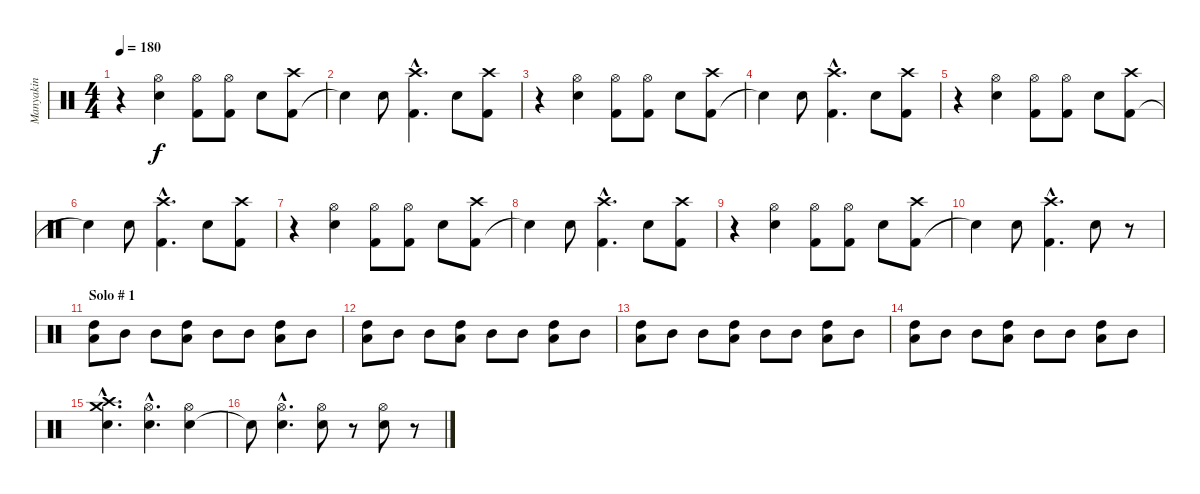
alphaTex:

\track ("Manyakin" "Manyakin") {instrument percussion}
\staff {score}
\articulation defaults
\ts (4 4)
\tempo 180
\clef neutral
\ks c
r.4{dy f} ("Snare (hit) 2" "Hi-Hat (open)").4 ("Kick (hit) 2" "Hi-Hat (open)").8 ("Kick (hit) 2" "Hi-Hat (open)").8 "Snare (hit) 2".8 ("Kick (hit) 2" "Crash high (hit)").8 |
"Snare (hit)"{t}.4 "Snare (hit) 2".8 ("Kick (hit) 2"{hac} "Crash high (hit)"{hac}).4{d} "Snare (hit) 2".8 ("Kick (hit) 2" "Crash high (hit)").8 |
r.4 ("Snare (hit) 2" "Hi-Hat (open)").4 ("Kick (hit) 2" "Hi-Hat (open)").8 ("Kick (hit) 2" "Hi-Hat (open)").8 "Snare (hit) 2".8 ("Kick (hit) 2" "Crash high (hit)").8 |
"Snare (hit)"{t}.4 "Snare (hit) 2".8 ("Kick (hit) 2"{hac} "Crash high (hit)"{hac}).4{d} "Snare (hit) 2".8 ("Kick (hit) 2" "Crash high (hit)").8 |
r.4 ("Snare (hit) 2" "Hi-Hat (open)").4 ("Kick (hit) 2" "Hi-Hat (open)").8 ("Kick (hit) 2" "Hi-Hat (open)").8 "Snare (hit) 2".8 ("Kick (hit) 2" "Crash high (hit)").8 |
"Snare (hit)"{t}.4 "Snare (hit) 2".8 ("Kick (hit) 2"{hac} "Crash high (hit)"{hac}).4{d} "Snare (hit) 2".8 ("Kick (hit) 2" "Crash high (hit)").8 |
r.4 ("Snare (hit) 2" "Hi-Hat (open)").4 ("Kick (hit) 2" "Hi-Hat (open)").8 ("Kick (hit) 2" "Hi-Hat (open)").8 "Snare (hit) 2".8 ("Kick (hit) 2" "Crash high (hit)").8 |
"Snare (hit)"{t}.4 "Snare (hit) 2".8 ("Kick (hit) 2"{hac} "Crash high (hit)"{hac}).4{d} "Snare (hit) 2".8 ("Kick (hit) 2" "Crash high (hit)").8 |
r.4 ("Snare (hit) 2" "Hi-Hat (open)").4 ("Kick (hit) 2" "Hi-Hat (open)").8 ("Kick (hit) 2" "Hi-Hat (open)").8 "Snare (hit) 2".8 ("Kick (hit) 2" "Crash high (hit)").8 |
"Snare (hit)"{t}.4 "Snare (hit) 2".8 ("Kick (hit) 2"{hac} "Crash high (hit)"{hac}).4{d} "Snare (hit) 2".8 r.8 |
\section ("" "Solo # 1")
("Low Tom (hit)" "High Tom (hit)").8 "Mid Tom (hit)".8 "Mid Tom (hit)".8 ("Low Tom (hit)" "High Tom (hit)").8 "Mid Tom (hit)".8 "Mid Tom (hit)".8 ("Low Tom (hit)" "High Tom (hit)").8 "Mid Tom (hit)".8 |
("Low Tom (hit)" "High Tom (hit)").8 "Mid Tom (hit)".8 "Mid Tom (hit)".8 ("Low Tom (hit)" "High Tom (hit)").8 "Mid Tom (hit)".8 "Mid Tom (hit)".8 ("Low Tom (hit)" "High Tom (hit)").8 "Mid Tom (hit)".8 |
("High Tom (hit)" "Low Tom (hit)").8 "Mid Tom (hit)".8 "Mid Tom (hit)".8 ("High Tom (hit)" "Low Tom (hit)").8 "Mid Tom (hit)".8 "Mid Tom (hit)".8 ("High Tom (hit)" "Low Tom (hit)").8 "Mid Tom (hit)".8 |
("Low Tom (hit)" "High Tom (hit)").8 "Mid Tom (hit)".8 "Mid Tom (hit)".8 ("Low Tom (hit)" "High Tom (hit)").8 "Mid Tom (hit)".8 "Mid Tom (hit)".8 ("Low Tom (hit)" "High Tom (hit)").8 "Mid Tom (hit)".8 |
("Snare (hit) 2"{hac} "Crash high (hit)"{hac} "Crash medium (hit)"{hac}).4{d} ("Snare (hit) 2"{hac} "Hi-Hat (open)"{hac}).4{d} ("Snare (hit) 2" "Hi-Hat (open)").4 |
"Snare (hit)"{t}.8 ("Snare (hit) 2"{hac} "Hi-Hat (open)"{hac}).4{d} ("Snare (hit) 2" "Hi-Hat (open)").8 r.8 ("Snare (hit) 2" "Hi-Hat (open)").8 r.8
